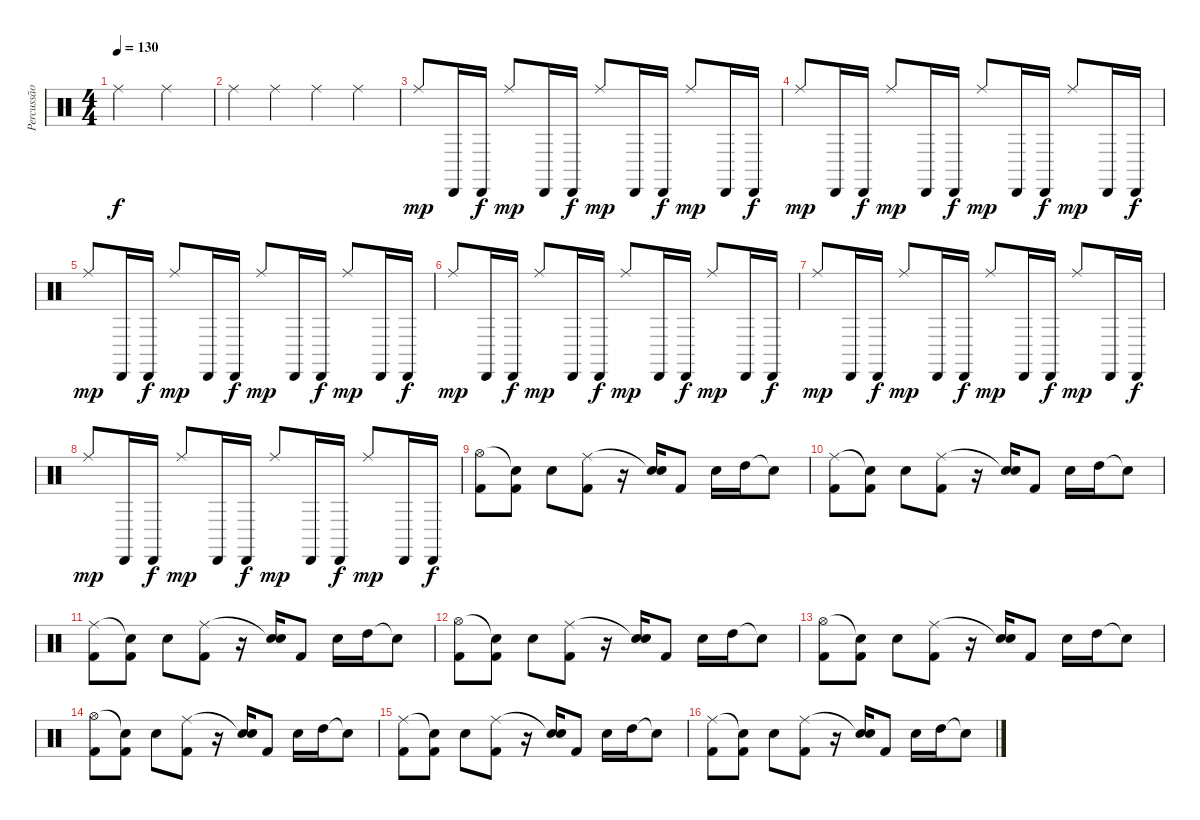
\track ("Percussão" "Percussão") {instrument percussion}
\staff {score}
\articulation defaults
\ts (4 4)
\tempo 130
\clef neutral
\ks c "Ride (middle)".2{dy f} "Ride (middle)".2
|
"Ride (middle)".4 "Ride (middle)".4 "Ride (middle)".4 "Ride (middle)".4 |
"Ride (middle)".8{dy mp} "Cabasa (hit)".16 "Cabasa (hit)".16{dy f} "Ride (middle)".8{dy mp} "Cabasa (hit)".16 "Cabasa (hit)".16{dy f} "Ride (middle)".8{dy mp} "Cabasa (hit)".16 "Cabasa (hit)".16{dy f} "Ride (middle)".8{dy mp} "Cabasa (hit)".16 "Cabasa (hit)".16{dy f} |
"Ride (middle)".8{dy mp} "Cabasa (hit)".16 "Cabasa (hit)".16{dy f} "Ride (middle)".8{dy mp} "Cabasa (hit)".16 "Cabasa (hit)".16{dy f} "Ride (middle)".8{dy mp} "Cabasa (hit)".16 "Cabasa (hit)".16{dy f} "Ride (middle)".8{dy mp} "Cabasa (hit)".16 "Cabasa (hit)".16{dy f} |
"Ride (middle)".8{dy mp} "Cabasa (hit)".16 "Cabasa (hit)".16{dy f} "Ride (middle)".8{dy mp} "Cabasa (hit)".16 "Cabasa (hit)".16{dy f} "Ride (middle)".8{dy mp} "Cabasa (hit)".16 "Cabasa (hit)".16{dy f} "Ride (middle)".8{dy mp} "Cabasa (hit)".16 "Cabasa (hit)".16{dy f} |
"Ride (middle)".8{dy mp} "Cabasa (hit)".16 "Cabasa (hit)".16{dy f} "Ride (middle)".8{dy mp} "Cabasa (hit)".16 "Cabasa (hit)".16{dy f} "Ride (middle)".8{dy mp} "Cabasa (hit)".16 "Cabasa (hit)".16{dy f} "Ride (middle)".8{dy mp} "Cabasa (hit)".16 "Cabasa (hit)".16{dy f} |
"Ride (middle)".8{dy mp} "Cabasa (hit)".16 "Cabasa (hit)".16{dy f} "Ride (middle)".8{dy mp} "Cabasa (hit)".16 "Cabasa (hit)".16{dy f} "Ride (middle)".8{dy mp} "Cabasa (hit)".16 "Cabasa (hit)".16{dy f} "Ride (middle)".8{dy mp} "Cabasa (hit)".16 "Cabasa (hit)".16{dy f} |
"Ride (middle)".8{dy mp} "Cabasa (hit)".16 "Cabasa (hit)".16{dy f} "Ride (middle)".8{dy mp} "Cabasa (hit)".16 "Cabasa (hit)".16{dy f} "Ride (middle)".8{dy mp} "Cabasa (hit)".16 "Cabasa (hit)".16{dy f} "Ride (middle)".8{dy mp} "Cabasa (hit)".16 "Cabasa (hit)".16{dy f} |
("Hi-Hat (open)" "Kick (hit) 2").8 ("Snare (hit)"{t} "Kick (hit) 2").8 "Electric Snare (hit)".8 ("Ride (middle)" "Kick (hit) 2").8 r.16 ("Snare (hit)"{t} "Electric Snare (hit)").16 "Kick (hit) 2".8 "Electric Snare (hit)".16 "High Tom (hit)".16 "Snare (hit)"{t}.8 |
("Ride (middle)" "Kick (hit) 2").8 ("Snare (hit)"{t} "Kick (hit) 2").8 "Electric Snare (hit)".8 ("Ride (middle)" "Kick (hit) 2").8 r.16 ("Snare (hit)"{t} "Electric Snare (hit)").16 "Kick (hit) 2".8 "Electric Snare (hit)".16 "High Tom (hit)".16 "Snare (hit)"{t}.8 |
("Ride (middle)" "Kick (hit) 2").8 ("Snare (hit)"{t} "Kick (hit) 2").8 "Electric Snare (hit)".8 ("Ride (middle)" "Kick (hit) 2").8 r.16 ("Snare (hit)"{t} "Electric Snare (hit)").16 "Kick (hit) 2".8 "Electric Snare (hit)".16 "High Tom (hit)".16 "Snare (hit)"{t}.8 |
("Hi-Hat (open)" "Kick (hit) 2").8 ("Snare (hit)"{t} "Kick (hit) 2").8 "Electric Snare (hit)".8 ("Ride (middle)" "Kick (hit) 2").8 r.16 ("Snare (hit)"{t} "Electric Snare (hit)").16 "Kick (hit) 2".8 "Electric Snare (hit)".16 "High Tom (hit)".16 "Snare (hit)"{t}.8 |
("Hi-Hat (open)" "Kick (hit) 2").8 ("Snare (hit)"{t} "Kick (hit) 2").8 "Electric Snare (hit)".8 ("Ride (middle)" "Kick (hit) 2").8 r.16 ("Snare (hit)"{t} "Electric Snare (hit)").16 "Kick (hit) 2".8 "Electric Snare (hit)".16 "High Tom (hit)".16 "Snare (hit)"{t}.8 |
("Hi-Hat (open)" "Kick (hit) 2").8 ("Snare (hit)"{t} "Kick (hit) 2").8 "Electric Snare (hit)".8 ("Ride (middle)" "Kick (hit) 2").8 r.16 ("Snare (hit)"{t} "Electric Snare (hit)").16 "Kick (hit) 2".8 "Electric Snare (hit)".16 "High Tom (hit)".16 "Snare (hit)"{t}.8 |
("Ride (middle)" "Kick (hit) 2").8 ("Snare (hit)"{t} "Kick (hit) 2").8 "Electric Snare (hit)".8 ("Ride (middle)" "Kick (hit) 2").8 r.16 ("Snare (hit)"{t} "Electric Snare (hit)").16 "Kick (hit) 2".8 "Electric Snare (hit)".16 "High Tom (hit)".16 "Snare (hit)"{t}.8 |
("Ride (middle)" "Kick (hit) 2").8 ("Snare (hit)"{t} "Kick (hit) 2").8 "Electric Snare (hit)".8 ("Ride (middle)" "Kick (hit) 2").8 r.16 ("Snare (hit)"{t} "Electric Snare (hit)").16 "Kick (hit) 2".8 "Electric Snare (hit)".16 "High Tom (hit)".16 "Snare (hit)"{t}.8
